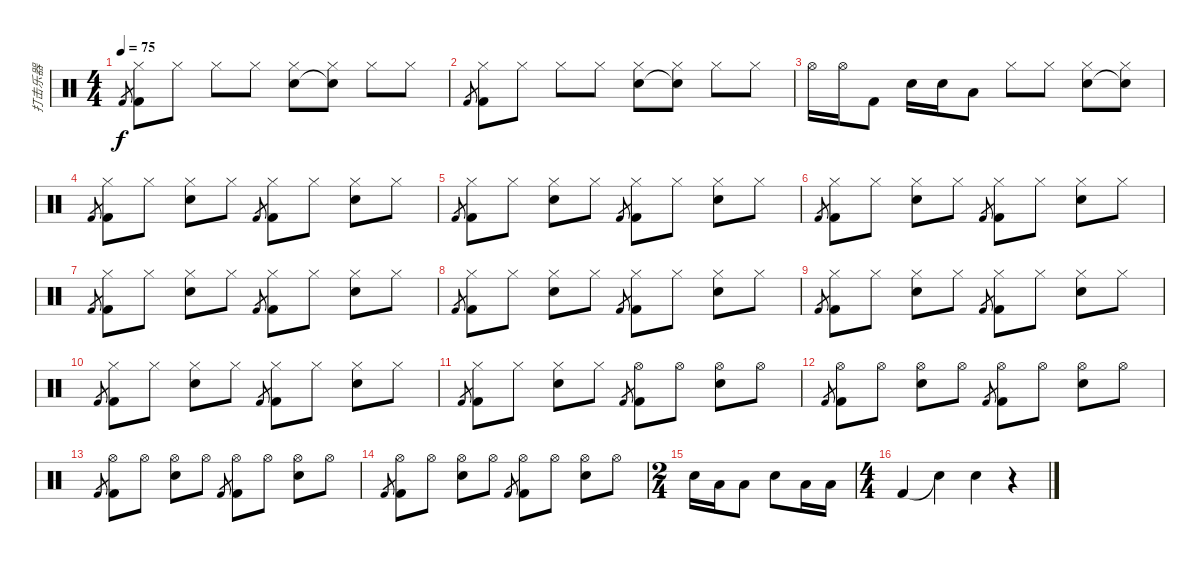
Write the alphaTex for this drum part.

\track ("打击乐器" "打击乐器") {instrument percussion}
\staff {score}
\articulation defaults
\ts (4 4)
\tempo 75
\clef neutral
\ks c "Kick (hit) 2".8{gr dy f}
("Hi-Hat (closed)" "Kick (hit) 2").8 "Hi-Hat (closed)".8 "Hi-Hat (closed)".8 "Hi-Hat (closed)".8 ("Hi-Hat (closed)" "Electric Snare (hit)").8 ("Hi-Hat (closed)" "Snare (hit)"{t}).8 "Hi-Hat (closed)".8 "Hi-Hat (closed)".8 |
"Kick (hit) 2".8{gr} ("Hi-Hat (closed)" "Kick (hit) 2").8 "Hi-Hat (closed)".8 "Hi-Hat (closed)".8 "Hi-Hat (closed)".8 ("Hi-Hat (closed)" "Electric Snare (hit)").8 ("Hi-Hat (closed)" "Snare (hit)"{t}).8 "Hi-Hat (closed)".8 "Hi-Hat (closed)".8 |
"Hi-Hat (open)".16 "Hi-Hat (open)".16 "Kick (hit) 2".8 "Snare (hit) 2".16 "Snare (hit) 2".16 "Low Tom (hit)".8 "Hi-Hat (closed)".8 "Hi-Hat (closed)".8 ("Hi-Hat (closed)" "Electric Snare (hit)").8 ("Hi-Hat (closed)" "Snare (hit)"{t}).8 |
"Kick (hit) 2".8{gr} ("Hi-Hat (closed)" "Kick (hit) 2").8 "Hi-Hat (closed)".8 ("Hi-Hat (closed)" "Electric Snare (hit)").8 "Hi-Hat (closed)".8 "Kick (hit) 2".8{gr} ("Hi-Hat (closed)" "Kick (hit) 2").8 "Hi-Hat (closed)".8 ("Hi-Hat (closed)" "Electric Snare (hit)").8 "Hi-Hat (closed)".8 |
"Kick (hit) 2".8{gr} ("Hi-Hat (closed)" "Kick (hit) 2").8 "Hi-Hat (closed)".8 ("Hi-Hat (closed)" "Electric Snare (hit)").8 "Hi-Hat (closed)".8 "Kick (hit) 2".8{gr} ("Hi-Hat (closed)" "Kick (hit) 2").8 "Hi-Hat (closed)".8 ("Hi-Hat (closed)" "Electric Snare (hit)").8 "Hi-Hat (closed)".8 |
"Kick (hit) 2".8{gr} ("Hi-Hat (closed)" "Kick (hit) 2").8 "Hi-Hat (closed)".8 ("Hi-Hat (closed)" "Electric Snare (hit)").8 "Hi-Hat (closed)".8 "Kick (hit) 2".8{gr} ("Hi-Hat (closed)" "Kick (hit) 2").8 "Hi-Hat (closed)".8 ("Hi-Hat (closed)" "Electric Snare (hit)").8 "Hi-Hat (closed)".8 |
"Kick (hit) 2".8{gr} ("Hi-Hat (closed)" "Kick (hit) 2").8 "Hi-Hat (closed)".8 ("Hi-Hat (closed)" "Electric Snare (hit)").8 "Hi-Hat (closed)".8 "Kick (hit) 2".8{gr} ("Hi-Hat (closed)" "Kick (hit) 2").8 "Hi-Hat (closed)".8 ("Hi-Hat (closed)" "Electric Snare (hit)").8 "Hi-Hat (closed)".8 |
"Kick (hit) 2".8{gr} ("Hi-Hat (closed)" "Kick (hit) 2").8 "Hi-Hat (closed)".8 ("Hi-Hat (closed)" "Electric Snare (hit)").8 "Hi-Hat (closed)".8 "Kick (hit) 2".8{gr} ("Hi-Hat (closed)" "Kick (hit) 2").8 "Hi-Hat (closed)".8 ("Hi-Hat (closed)" "Electric Snare (hit)").8 "Hi-Hat (closed)".8 |
"Kick (hit) 2".8{gr} ("Hi-Hat (closed)" "Kick (hit) 2").8 "Hi-Hat (closed)".8 ("Hi-Hat (closed)" "Electric Snare (hit)").8 "Hi-Hat (closed)".8 "Kick (hit) 2".8{gr} ("Hi-Hat (closed)" "Kick (hit) 2").8 "Hi-Hat (closed)".8 ("Hi-Hat (closed)" "Electric Snare (hit)").8 "Hi-Hat (closed)".8 |
"Kick (hit) 2".8{gr} ("Hi-Hat (closed)" "Kick (hit) 2").8 "Hi-Hat (closed)".8 ("Hi-Hat (closed)" "Electric Snare (hit)").8 "Hi-Hat (closed)".8 "Kick (hit) 2".8{gr} ("Hi-Hat (closed)" "Kick (hit) 2").8 "Hi-Hat (closed)".8 ("Hi-Hat (closed)" "Electric Snare (hit)").8 "Hi-Hat (closed)".8 |
"Kick (hit) 2".8{gr} ("Hi-Hat (closed)" "Kick (hit) 2").8 "Hi-Hat (closed)".8 ("Hi-Hat (closed)" "Electric Snare (hit)").8 "Hi-Hat (closed)".8 "Kick (hit) 2".8{gr} ("Hi-Hat (open)" "Kick (hit) 2").8 "Hi-Hat (open)".8 ("Hi-Hat (open)" "Electric Snare (hit)").8 "Hi-Hat (open)".8 |
"Kick (hit) 2".8{gr} ("Hi-Hat (open)" "Kick (hit) 2").8 "Hi-Hat (open)".8 ("Hi-Hat (open)" "Electric Snare (hit)").8 "Hi-Hat (open)".8 "Kick (hit) 2".8{gr} ("Hi-Hat (open)" "Kick (hit) 2").8 "Hi-Hat (open)".8 ("Hi-Hat (open)" "Electric Snare (hit)").8 "Hi-Hat (open)".8 |
"Kick (hit) 2".8{gr} ("Hi-Hat (open)" "Kick (hit) 2").8 "Hi-Hat (open)".8 ("Hi-Hat (open)" "Electric Snare (hit)").8 "Hi-Hat (open)".8 "Kick (hit) 2".8{gr} ("Hi-Hat (open)" "Kick (hit) 2").8 "Hi-Hat (open)".8 ("Hi-Hat (open)" "Electric Snare (hit)").8 "Hi-Hat (open)".8 |
"Kick (hit) 2".8{gr} ("Hi-Hat (open)" "Kick (hit) 2").8 "Hi-Hat (open)".8 ("Hi-Hat (open)" "Electric Snare (hit)").8 "Hi-Hat (open)".8 "Kick (hit) 2".8{gr} ("Hi-Hat (open)" "Kick (hit) 2").8 "Hi-Hat (open)".8 ("Hi-Hat (open)" "Electric Snare (hit)").8 "Hi-Hat (open)".8 |
\ts (2 4)
"Electric Snare (hit)".16 "Low Floor Tom (hit)".16 "Low Floor Tom (hit)".8 "Electric Snare (hit)".8 "Low Floor Tom (hit)".16 "Low Floor Tom (hit)".16 |
\ts (4 4)
"Kick (hit) 2".4 "Snare (hit)"{t}.4 "Electric Snare (hit)".4 r.4
